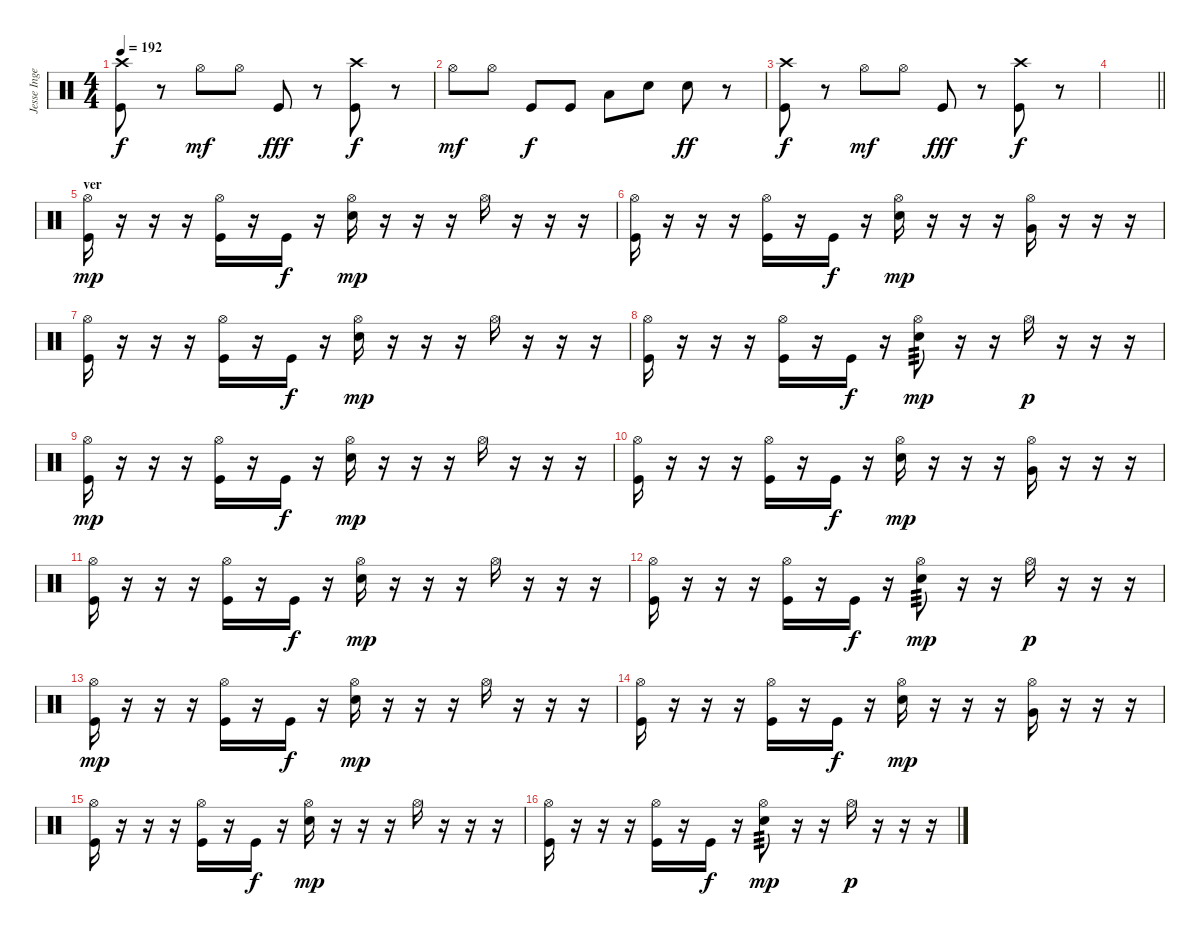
\track ("Jesse Ingelevics" "Jesse Inge") {instrument percussion}
\staff {score}
\articulation defaults
\ts (4 4)
\tempo 192
\clef neutral
\ks c
("Crash high (hit)" "Kick (hit)").8{dy f} r.8 "Hi-Hat (open)".8{dy mf} "Hi-Hat (open)".8 "Kick (hit)".8{dy fff} r.8 ("Crash high (hit)" "Kick (hit)").8{dy f} r.8 |
"Hi-Hat (open)".8{dy mf} "Hi-Hat (open)".8 "Kick (hit)".8{dy f} "Kick (hit)".8 "Low Tom (hit)".8 "Electric Snare (hit)".8 "Electric Snare (hit)".8{dy ff} r.8 |
("Crash high (hit)" "Kick (hit)").8{dy f} r.8 "Hi-Hat (open)".8{dy mf} "Hi-Hat (open)".8 "Kick (hit)".8{dy fff} r.8 ("Crash high (hit)" "Kick (hit)").8{dy f} r.8 |
\barLineRight lightlight
|
\section ("" "ver")
("Hi-Hat (open)" "Kick (hit)").16{dy mp} r.16 r.16 r.16 ("Hi-Hat (open)" "Kick (hit)").16 r.16 "Kick (hit)".16{dy f} r.16 ("Hi-Hat (open)" "Electric Snare (hit)").16{dy mp} r.16 r.16 r.16 "Hi-Hat (open)".16 r.16 r.16 r.16 |
("Hi-Hat (open)" "Kick (hit)").16 r.16 r.16 r.16 ("Hi-Hat (open)" "Kick (hit)").16 r.16 "Kick (hit)".16{dy f} r.16 ("Hi-Hat (open)" "Electric Snare (hit)").16{dy mp} r.16 r.16 r.16 ("Hi-Hat (open)" "Very Low Tom (hit)").16 r.16 r.16 r.16 |
("Hi-Hat (open)" "Kick (hit)").16 r.16 r.16 r.16 ("Hi-Hat (open)" "Kick (hit)").16 r.16 "Kick (hit)".16{dy f} r.16 ("Hi-Hat (open)" "Electric Snare (hit)").16{dy mp} r.16 r.16 r.16 "Hi-Hat (open)".16 r.16 r.16 r.16 |
("Hi-Hat (open)" "Kick (hit)").16 r.16 r.16 r.16 ("Hi-Hat (open)" "Kick (hit)").16 r.16 "Kick (hit)".16{dy f} r.16 ("Hi-Hat (open)" "Electric Snare (hit)").8{tp 3 dy mp} r.16 r.16 "Hi-Hat (open)".16{dy p} r.16 r.16 r.16 |
("Hi-Hat (open)" "Kick (hit)").16{dy mp} r.16 r.16 r.16 ("Hi-Hat (open)" "Kick (hit)").16 r.16 "Kick (hit)".16{dy f} r.16 ("Hi-Hat (open)" "Electric Snare (hit)").16{dy mp} r.16 r.16 r.16 "Hi-Hat (open)".16 r.16 r.16 r.16 |
("Hi-Hat (open)" "Kick (hit)").16 r.16 r.16 r.16 ("Hi-Hat (open)" "Kick (hit)").16 r.16 "Kick (hit)".16{dy f} r.16 ("Hi-Hat (open)" "Electric Snare (hit)").16{dy mp} r.16 r.16 r.16 ("Hi-Hat (open)" "Very Low Tom (hit)").16 r.16 r.16 r.16 |
("Hi-Hat (open)" "Kick (hit)").16 r.16 r.16 r.16 ("Hi-Hat (open)" "Kick (hit)").16 r.16 "Kick (hit)".16{dy f} r.16 ("Hi-Hat (open)" "Electric Snare (hit)").16{dy mp} r.16 r.16 r.16 "Hi-Hat (open)".16 r.16 r.16 r.16 |
("Hi-Hat (open)" "Kick (hit)").16 r.16 r.16 r.16 ("Hi-Hat (open)" "Kick (hit)").16 r.16 "Kick (hit)".16{dy f} r.16 ("Hi-Hat (open)" "Electric Snare (hit)").8{tp 3 dy mp} r.16 r.16 "Hi-Hat (open)".16{dy p} r.16 r.16 r.16 |
("Hi-Hat (open)" "Kick (hit)").16{dy mp} r.16 r.16 r.16 ("Hi-Hat (open)" "Kick (hit)").16 r.16 "Kick (hit)".16{dy f} r.16 ("Hi-Hat (open)" "Electric Snare (hit)").16{dy mp} r.16 r.16 r.16 "Hi-Hat (open)".16 r.16 r.16 r.16 |
("Hi-Hat (open)" "Kick (hit)").16 r.16 r.16 r.16 ("Hi-Hat (open)" "Kick (hit)").16 r.16 "Kick (hit)".16{dy f} r.16 ("Hi-Hat (open)" "Electric Snare (hit)").16{dy mp} r.16 r.16 r.16 ("Hi-Hat (open)" "Very Low Tom (hit)").16 r.16 r.16 r.16 |
("Hi-Hat (open)" "Kick (hit)").16 r.16 r.16 r.16 ("Hi-Hat (open)" "Kick (hit)").16 r.16 "Kick (hit)".16{dy f} r.16 ("Hi-Hat (open)" "Electric Snare (hit)").16{dy mp} r.16 r.16 r.16 "Hi-Hat (open)".16 r.16 r.16 r.16 |
("Hi-Hat (open)" "Kick (hit)").16 r.16 r.16 r.16 ("Hi-Hat (open)" "Kick (hit)").16 r.16 "Kick (hit)".16{dy f} r.16 ("Hi-Hat (open)" "Electric Snare (hit)").8{tp 3 dy mp} r.16 r.16 "Hi-Hat (open)".16{dy p} r.16 r.16 r.16
